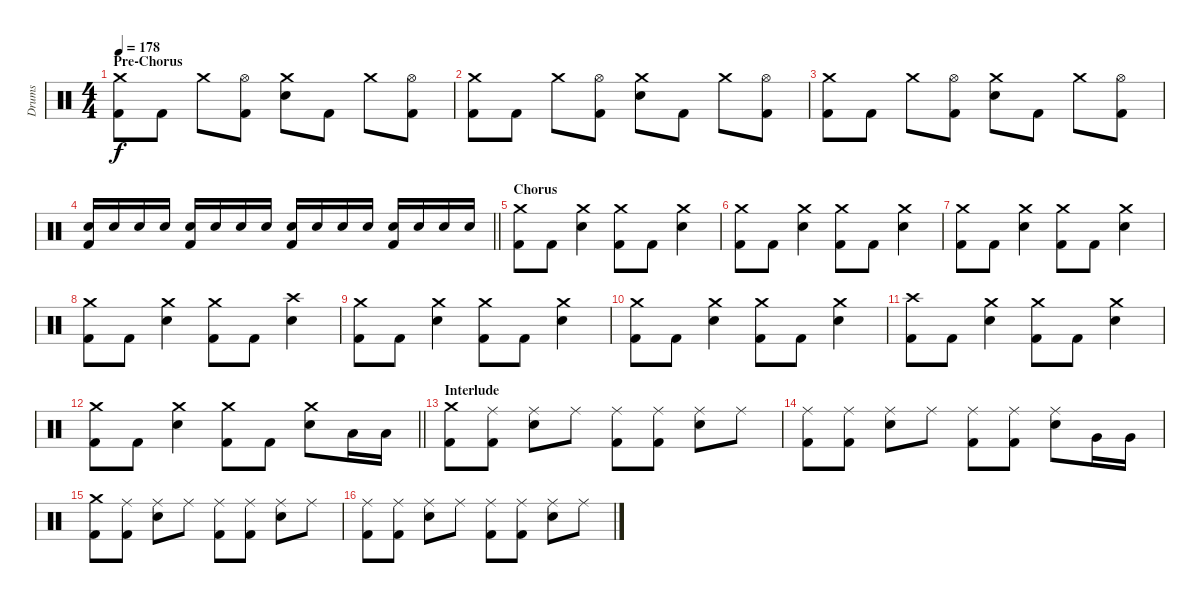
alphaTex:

\track ("Drums" "Drums") {instrument percussion}
\staff {score}
\articulation defaults
\ts (4 4)
\section ("" "Pre-Chorus")
\tempo 178
\clef neutral
\ks c
("Crash medium (hit)" "Kick (hit) 2").8{dy f} "Kick (hit) 2".8 "Crash medium (hit)".8 ("Hi-Hat (open)" "Kick (hit) 2").8 ("Crash medium (hit)" "Electric Snare (hit)").8 "Kick (hit) 2".8 "Crash medium (hit)".8 ("Hi-Hat (open)" "Kick (hit) 2").8 |
("Crash medium (hit)" "Kick (hit) 2").8 "Kick (hit) 2".8 "Crash medium (hit)".8 ("Hi-Hat (open)" "Kick (hit) 2").8 ("Crash medium (hit)" "Electric Snare (hit)").8 "Kick (hit) 2".8 "Crash medium (hit)".8 ("Hi-Hat (open)" "Kick (hit) 2").8 |
("Crash medium (hit)" "Kick (hit) 2").8 "Kick (hit) 2".8 "Crash medium (hit)".8 ("Hi-Hat (open)" "Kick (hit) 2").8 ("Crash medium (hit)" "Electric Snare (hit)").8 "Kick (hit) 2".8 "Crash medium (hit)".8 ("Hi-Hat (open)" "Kick (hit) 2").8 |
\barLineRight lightlight
("Electric Snare (hit)" "Kick (hit) 2").16 "Electric Snare (hit)".16{volume 9} "Electric Snare (hit)".16{volume 12} "Electric Snare (hit)".16 ("Electric Snare (hit)" "Kick (hit) 2").16 "Electric Snare (hit)".16 "Electric Snare (hit)".16 "Electric Snare (hit)".16 ("Electric Snare (hit)" "Kick (hit) 2").16 "Electric Snare (hit)".16 "Electric Snare (hit)".16 "Electric Snare (hit)".16 ("Electric Snare (hit)" "Kick (hit) 2").16 "Electric Snare (hit)".16 "Electric Snare (hit)".16 "Electric Snare (hit)".16 |
\section ("" "Chorus")
("Crash medium (hit)" "Kick (hit) 2").8 "Kick (hit) 2".8 ("Crash medium (hit)" "Electric Snare (hit)").4 ("Crash medium (hit)" "Kick (hit) 2").8 "Kick (hit) 2".8 ("Crash medium (hit)" "Electric Snare (hit)").4 |
("Crash medium (hit)" "Kick (hit) 2").8 "Kick (hit) 2".8 ("Crash medium (hit)" "Electric Snare (hit)").4 ("Crash medium (hit)" "Kick (hit) 2").8 "Kick (hit) 2".8 ("Crash medium (hit)" "Electric Snare (hit)").4 |
("Crash medium (hit)" "Kick (hit) 2").8 "Kick (hit) 2".8 ("Crash medium (hit)" "Electric Snare (hit)").4 ("Crash medium (hit)" "Kick (hit) 2").8 "Kick (hit) 2".8 ("Crash medium (hit)" "Electric Snare (hit)").4 |
("Crash medium (hit)" "Kick (hit) 2").8 "Kick (hit) 2".8 ("Crash medium (hit)" "Electric Snare (hit)").4 ("Crash medium (hit)" "Kick (hit) 2").8 "Kick (hit) 2".8 ("Crash high (hit)" "Electric Snare (hit)").4 |
("Crash medium (hit)" "Kick (hit) 2").8 "Kick (hit) 2".8 ("Crash medium (hit)" "Electric Snare (hit)").4 ("Crash medium (hit)" "Kick (hit) 2").8 "Kick (hit) 2".8 ("Crash medium (hit)" "Electric Snare (hit)").4 |
("Crash medium (hit)" "Kick (hit) 2").8 "Kick (hit) 2".8 ("Crash medium (hit)" "Electric Snare (hit)").4 ("Crash medium (hit)" "Kick (hit) 2").8 "Kick (hit) 2".8 ("Crash medium (hit)" "Electric Snare (hit)").4 |
("Crash high (hit)" "Kick (hit) 2").8 "Kick (hit) 2".8 ("Crash medium (hit)" "Electric Snare (hit)").4 ("Crash medium (hit)" "Kick (hit) 2").8 "Kick (hit) 2".8 ("Crash medium (hit)" "Electric Snare (hit)").4 |
\barLineRight lightlight
("Crash medium (hit)" "Kick (hit) 2").8 "Kick (hit) 2".8 ("Crash medium (hit)" "Electric Snare (hit)").4 ("Crash medium (hit)" "Kick (hit) 2").8 "Kick (hit) 2".8 ("Crash medium (hit)" "Electric Snare (hit)").8 "Low Tom (hit)".16 "Low Tom (hit)".16 |
\section ("" "Interlude")
("Crash medium (hit)" "Kick (hit) 2").8 ("Ride (middle)" "Kick (hit) 2").8 ("Ride (middle)" "Electric Snare (hit)").8 "Ride (middle)".8 ("Ride (middle)" "Kick (hit) 2").8 ("Ride (middle)" "Kick (hit) 2").8 ("Ride (middle)" "Electric Snare (hit)").8 "Ride (middle)".8 |
("Ride (middle)" "Kick (hit) 2").8 ("Ride (middle)" "Kick (hit) 2").8 ("Ride (middle)" "Electric Snare (hit)").8 "Ride (middle)".8 ("Ride (middle)" "Kick (hit) 2").8 ("Ride (middle)" "Kick (hit) 2").8 ("Ride (middle)" "Electric Snare (hit)").8 "Very Low Tom (hit)".16 "Very Low Tom (hit)".16 |
("Crash medium (hit)" "Kick (hit) 2").8 ("Ride (middle)" "Kick (hit) 2").8 ("Ride (middle)" "Electric Snare (hit)").8 "Ride (middle)".8 ("Ride (middle)" "Kick (hit) 2").8 ("Ride (middle)" "Kick (hit) 2").8 ("Ride (middle)" "Electric Snare (hit)").8 "Ride (middle)".8 |
("Ride (middle)" "Kick (hit) 2").8 ("Ride (middle)" "Kick (hit) 2").8 ("Ride (middle)" "Electric Snare (hit)").8 "Ride (middle)".8 ("Ride (middle)" "Kick (hit) 2").8 ("Ride (middle)" "Kick (hit) 2").8 ("Ride (middle)" "Electric Snare (hit)").8 "Ride (middle)".8
